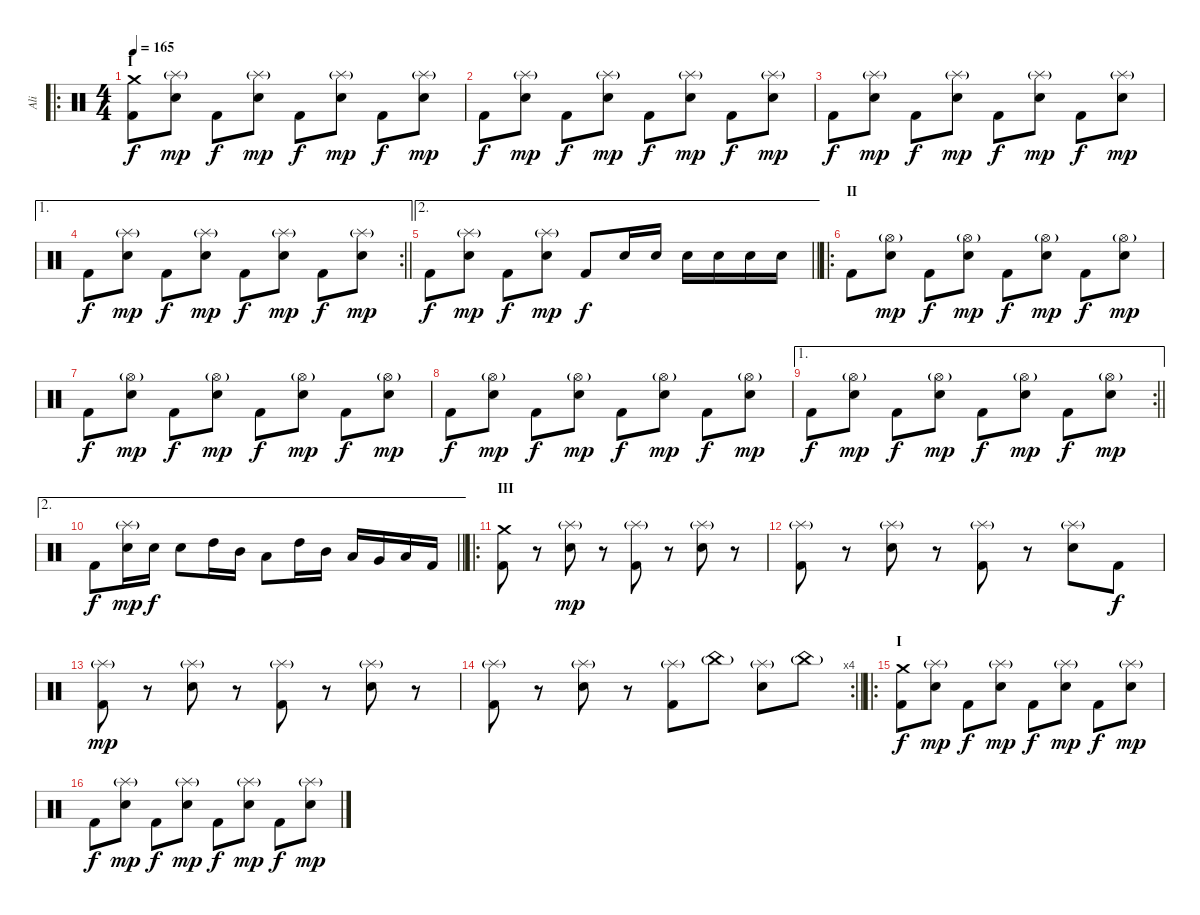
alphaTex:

\track ("Ali" "Ali") {instrument percussion}
\staff {score}
\articulation defaults
\ro
\ts (4 4)
\section ("" "I")
\tempo 165
\clef neutral
\ks c
("Kick (hit) 2" "Crash medium (hit)").8{dy f} ("Snare (hit) 2" "Splash (hit)"{g}).8{dy mp} "Kick (hit) 2".8{dy f} ("Snare (hit) 2" "Splash (hit)"{g}).8{dy mp} "Kick (hit) 2".8{dy f} ("Snare (hit) 2" "Splash (hit)"{g}).8{dy mp} "Kick (hit) 2".8{dy f} ("Snare (hit) 2" "Splash (hit)"{g}).8{dy mp} |
"Kick (hit) 2".8{dy f} ("Snare (hit) 2" "Splash (hit)"{g}).8{dy mp} "Kick (hit) 2".8{dy f} ("Snare (hit) 2" "Splash (hit)"{g}).8{dy mp} "Kick (hit) 2".8{dy f} ("Snare (hit) 2" "Splash (hit)"{g}).8{dy mp} "Kick (hit) 2".8{dy f} ("Snare (hit) 2" "Splash (hit)"{g}).8{dy mp} |
"Kick (hit) 2".8{dy f} ("Snare (hit) 2" "Splash (hit)"{g}).8{dy mp} "Kick (hit) 2".8{dy f} ("Snare (hit) 2" "Splash (hit)"{g}).8{dy mp} "Kick (hit) 2".8{dy f} ("Snare (hit) 2" "Splash (hit)"{g}).8{dy mp} "Kick (hit) 2".8{dy f} ("Snare (hit) 2" "Splash (hit)"{g}).8{dy mp} |
\ae 1
\rc 2
\barLineRight lightlight "Kick (hit) 2".8{dy f}
("Snare (hit) 2" "Splash (hit)"{g}).8{dy mp} "Kick (hit) 2".8{dy f} ("Snare (hit) 2" "Splash (hit)"{g}).8{dy mp} "Kick (hit) 2".8{dy f} ("Snare (hit) 2" "Splash (hit)"{g}).8{dy mp} "Kick (hit) 2".8{dy f} ("Snare (hit) 2" "Splash (hit)"{g}).8{dy mp} |
\ae 2
\barLineRight lightlight "Kick (hit) 2".8{dy f}
("Snare (hit) 2" "Splash (hit)"{g}).8{dy mp} "Kick (hit) 2".8{dy f} ("Snare (hit) 2" "Splash (hit)"{g}).8{dy mp} "Kick (hit) 2".8{dy f} "Snare (hit) 2".16 "Snare (hit) 2".16 "Snare (hit) 2".16 "Snare (hit) 2".16 "Snare (hit) 2".16 "Snare (hit) 2".16 |
\ro
\section ("" "II")
"Kick (hit) 2".8 ("Snare (hit) 2" "Hi-Hat (open)"{g}).8{dy mp} "Kick (hit) 2".8{dy f} ("Snare (hit) 2" "Hi-Hat (open)"{g}).8{dy mp} "Kick (hit) 2".8{dy f} ("Snare (hit) 2" "Hi-Hat (open)"{g}).8{dy mp} "Kick (hit) 2".8{dy f} ("Snare (hit) 2" "Hi-Hat (open)"{g}).8{dy mp} |
"Kick (hit) 2".8{dy f} ("Snare (hit) 2" "Hi-Hat (open)"{g}).8{dy mp} "Kick (hit) 2".8{dy f} ("Snare (hit) 2" "Hi-Hat (open)"{g}).8{dy mp} "Kick (hit) 2".8{dy f} ("Snare (hit) 2" "Hi-Hat (open)"{g}).8{dy mp} "Kick (hit) 2".8{dy f} ("Snare (hit) 2" "Hi-Hat (open)"{g}).8{dy mp} |
"Kick (hit) 2".8{dy f} ("Snare (hit) 2" "Hi-Hat (open)"{g}).8{dy mp} "Kick (hit) 2".8{dy f} ("Snare (hit) 2" "Hi-Hat (open)"{g}).8{dy mp} "Kick (hit) 2".8{dy f} ("Snare (hit) 2" "Hi-Hat (open)"{g}).8{dy mp} "Kick (hit) 2".8{dy f} ("Snare (hit) 2" "Hi-Hat (open)"{g}).8{dy mp} |
\ae 1
\rc 2
\barLineRight lightlight "Kick (hit) 2".8{dy f}
("Snare (hit) 2" "Hi-Hat (open)"{g}).8{dy mp} "Kick (hit) 2".8{dy f} ("Snare (hit) 2" "Hi-Hat (open)"{g}).8{dy mp} "Kick (hit) 2".8{dy f} ("Snare (hit) 2" "Hi-Hat (open)"{g}).8{dy mp} "Kick (hit) 2".8{dy f} ("Snare (hit) 2" "Hi-Hat (open)"{g}).8{dy mp} |
\ae 2
\barLineRight lightlight "Kick (hit) 2".8{dy f}
("Snare (hit) 2" "Splash (hit)"{g}).16{dy mp} "Snare (hit) 2".16{dy f} "Snare (hit) 2".8 "High Tom (hit)".16 "Mid Tom (hit)".16 "Low Tom (hit)".8 "High Tom (hit)".16 "Mid Tom (hit)".16 "Low Tom (hit)".16 "Very Low Tom (hit)".16 "Low Floor Tom (hit)".16 "Kick (hit) 2".16 |
\ro
\section ("" "III")
("Kick (hit) 2" "Crash medium (hit)").8 r.8 ("Electric Snare (hit)" "Splash (hit)"{g}).8{dy mp} r.8 ("Kick (hit) 2" "Splash (hit)"{g}).8 r.8 ("Electric Snare (hit)" "Splash (hit)"{g}).8 r.8 |
("Kick (hit) 2" "Splash (hit)"{g}).8 r.8 ("Electric Snare (hit)" "Splash (hit)"{g}).8 r.8 ("Kick (hit) 2" "Splash (hit)"{g}).8 r.8 ("Electric Snare (hit)" "Splash (hit)"{g}).8 "Kick (hit) 2".8{dy f} |
("Kick (hit) 2" "Splash (hit)"{g}).8{dy mp} r.8 ("Electric Snare (hit)" "Splash (hit)"{g}).8 r.8 ("Kick (hit) 2" "Splash (hit)"{g}).8 r.8 ("Electric Snare (hit)" "Splash (hit)"{g}).8 r.8 |
\rc 4
\barLineRight lightlight
("Kick (hit) 2" "Splash (hit)"{g}).8 r.8 ("Electric Snare (hit)" "Splash (hit)"{g}).8 r.8 ("Kick (hit) 2" "Splash (hit)"{g}).8 "China (hit)"{g}.8 ("Electric Snare (hit)" "Splash (hit)"{g}).8 "China (hit)"{g}.8 |
\ro
\section ("" "I")
("Kick (hit) 2" "Crash medium (hit)").8{dy f} ("Snare (hit) 2" "Splash (hit)"{g}).8{dy mp} "Kick (hit) 2".8{dy f} ("Snare (hit) 2" "Splash (hit)"{g}).8{dy mp} "Kick (hit) 2".8{dy f} ("Snare (hit) 2" "Splash (hit)"{g}).8{dy mp} "Kick (hit) 2".8{dy f} ("Snare (hit) 2" "Splash (hit)"{g}).8{dy mp} |
"Kick (hit) 2".8{dy f} ("Snare (hit) 2" "Splash (hit)"{g}).8{dy mp} "Kick (hit) 2".8{dy f} ("Snare (hit) 2" "Splash (hit)"{g}).8{dy mp} "Kick (hit) 2".8{dy f} ("Snare (hit) 2" "Splash (hit)"{g}).8{dy mp} "Kick (hit) 2".8{dy f} ("Snare (hit) 2" "Splash (hit)"{g}).8{dy mp}
